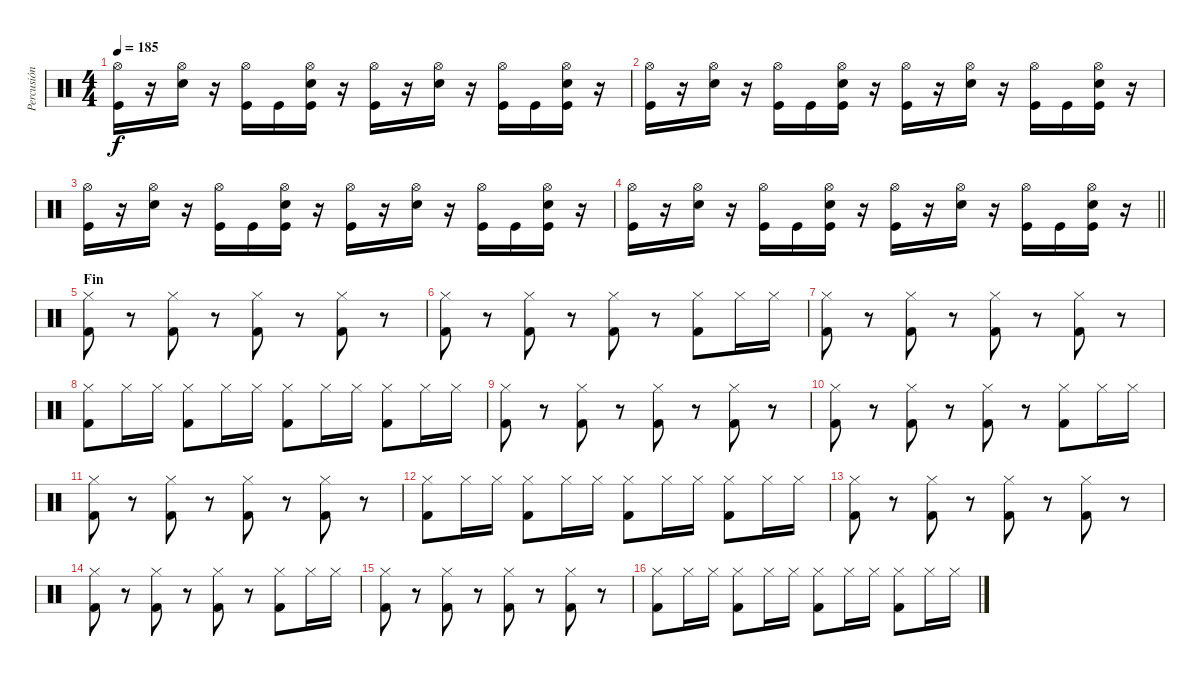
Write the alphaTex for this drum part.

\track ("Percusión" "Percusión") {instrument percussion}
\staff {score}
\articulation defaults
\ts (4 4)
\tempo 185
\clef neutral
\ks c
("Hi-Hat (open)" "Kick (hit)").16{dy f} r.16 ("Hi-Hat (open)" "Electric Snare (hit)").16 r.16 ("Hi-Hat (open)" "Kick (hit)").16 "Kick (hit)".16 ("Hi-Hat (open)" "Electric Snare (hit)" "Kick (hit)").16 r.16 ("Hi-Hat (open)" "Kick (hit)").16 r.16 ("Hi-Hat (open)" "Electric Snare (hit)").16 r.16 ("Hi-Hat (open)" "Kick (hit)").16 "Kick (hit)".16 ("Hi-Hat (open)" "Electric Snare (hit)" "Kick (hit)").16 r.16 |
("Hi-Hat (open)" "Kick (hit)").16 r.16 ("Hi-Hat (open)" "Electric Snare (hit)").16 r.16 ("Hi-Hat (open)" "Kick (hit)").16 "Kick (hit)".16 ("Hi-Hat (open)" "Electric Snare (hit)" "Kick (hit)").16 r.16 ("Hi-Hat (open)" "Kick (hit)").16 r.16 ("Hi-Hat (open)" "Electric Snare (hit)").16 r.16 ("Hi-Hat (open)" "Kick (hit)").16 "Kick (hit)".16 ("Hi-Hat (open)" "Electric Snare (hit)" "Kick (hit)").16 r.16 |
("Hi-Hat (open)" "Kick (hit)").16 r.16 ("Hi-Hat (open)" "Electric Snare (hit)").16 r.16 ("Hi-Hat (open)" "Kick (hit)").16 "Kick (hit)".16 ("Hi-Hat (open)" "Electric Snare (hit)" "Kick (hit)").16 r.16 ("Hi-Hat (open)" "Kick (hit)").16 r.16 ("Hi-Hat (open)" "Electric Snare (hit)").16 r.16 ("Hi-Hat (open)" "Kick (hit)").16 "Kick (hit)".16 ("Hi-Hat (open)" "Electric Snare (hit)" "Kick (hit)").16 r.16 |
\barLineRight lightlight
("Hi-Hat (open)" "Kick (hit)").16 r.16 ("Hi-Hat (open)" "Electric Snare (hit)").16 r.16 ("Hi-Hat (open)" "Kick (hit)").16 "Kick (hit)".16 ("Hi-Hat (open)" "Electric Snare (hit)" "Kick (hit)").16 r.16 ("Hi-Hat (open)" "Kick (hit)").16 r.16 ("Hi-Hat (open)" "Electric Snare (hit)").16 r.16 ("Hi-Hat (open)" "Kick (hit)").16 "Kick (hit)".16 ("Hi-Hat (open)" "Electric Snare (hit)" "Kick (hit)").16 r.16 |
\section ("" "Fin")
("Hi-Hat (closed)" "Kick (hit) 2").8 r.8 ("Hi-Hat (closed)" "Kick (hit) 2").8 r.8 ("Hi-Hat (closed)" "Kick (hit) 2").8 r.8 ("Hi-Hat (closed)" "Kick (hit) 2").8 r.8 |
("Hi-Hat (closed)" "Kick (hit) 2").8 r.8 ("Hi-Hat (closed)" "Kick (hit) 2").8 r.8 ("Hi-Hat (closed)" "Kick (hit) 2").8 r.8 ("Hi-Hat (closed)" "Kick (hit) 2").8 "Hi-Hat (closed)".16 "Hi-Hat (closed)".16 |
("Hi-Hat (closed)" "Kick (hit) 2").8 r.8 ("Hi-Hat (closed)" "Kick (hit) 2").8 r.8 ("Hi-Hat (closed)" "Kick (hit) 2").8 r.8 ("Hi-Hat (closed)" "Kick (hit) 2").8 r.8 |
("Hi-Hat (closed)" "Kick (hit) 2").8 "Hi-Hat (closed)".16 "Hi-Hat (closed)".16 ("Hi-Hat (closed)" "Kick (hit) 2").8 "Hi-Hat (closed)".16 "Hi-Hat (closed)".16 ("Hi-Hat (closed)" "Kick (hit) 2").8 "Hi-Hat (closed)".16 "Hi-Hat (closed)".16 ("Hi-Hat (closed)" "Kick (hit) 2").8 "Hi-Hat (closed)".16 "Hi-Hat (closed)".16 |
("Hi-Hat (closed)" "Kick (hit) 2").8 r.8 ("Hi-Hat (closed)" "Kick (hit) 2").8 r.8 ("Hi-Hat (closed)" "Kick (hit) 2").8 r.8 ("Hi-Hat (closed)" "Kick (hit) 2").8 r.8 |
("Hi-Hat (closed)" "Kick (hit) 2").8 r.8 ("Hi-Hat (closed)" "Kick (hit) 2").8 r.8 ("Hi-Hat (closed)" "Kick (hit) 2").8 r.8 ("Hi-Hat (closed)" "Kick (hit) 2").8 "Hi-Hat (closed)".16 "Hi-Hat (closed)".16 |
("Hi-Hat (closed)" "Kick (hit) 2").8 r.8 ("Hi-Hat (closed)" "Kick (hit) 2").8 r.8 ("Hi-Hat (closed)" "Kick (hit) 2").8 r.8 ("Hi-Hat (closed)" "Kick (hit) 2").8 r.8 |
("Hi-Hat (closed)" "Kick (hit) 2").8 "Hi-Hat (closed)".16 "Hi-Hat (closed)".16 ("Hi-Hat (closed)" "Kick (hit) 2").8 "Hi-Hat (closed)".16 "Hi-Hat (closed)".16 ("Hi-Hat (closed)" "Kick (hit) 2").8 "Hi-Hat (closed)".16 "Hi-Hat (closed)".16 ("Hi-Hat (closed)" "Kick (hit) 2").8 "Hi-Hat (closed)".16 "Hi-Hat (closed)".16 |
("Hi-Hat (closed)" "Kick (hit) 2").8 r.8 ("Hi-Hat (closed)" "Kick (hit) 2").8 r.8 ("Hi-Hat (closed)" "Kick (hit) 2").8 r.8 ("Hi-Hat (closed)" "Kick (hit) 2").8 r.8 |
("Hi-Hat (closed)" "Kick (hit) 2").8 r.8 ("Hi-Hat (closed)" "Kick (hit) 2").8 r.8 ("Hi-Hat (closed)" "Kick (hit) 2").8 r.8 ("Hi-Hat (closed)" "Kick (hit) 2").8 "Hi-Hat (closed)".16 "Hi-Hat (closed)".16 |
("Hi-Hat (closed)" "Kick (hit) 2").8 r.8 ("Hi-Hat (closed)" "Kick (hit) 2").8 r.8 ("Hi-Hat (closed)" "Kick (hit) 2").8 r.8 ("Hi-Hat (closed)" "Kick (hit) 2").8 r.8 |
("Hi-Hat (closed)" "Kick (hit) 2").8 "Hi-Hat (closed)".16 "Hi-Hat (closed)".16 ("Hi-Hat (closed)" "Kick (hit) 2").8 "Hi-Hat (closed)".16 "Hi-Hat (closed)".16 ("Hi-Hat (closed)" "Kick (hit) 2").8 "Hi-Hat (closed)".16 "Hi-Hat (closed)".16 ("Hi-Hat (closed)" "Kick (hit) 2").8 "Hi-Hat (closed)".16 "Hi-Hat (closed)".16
